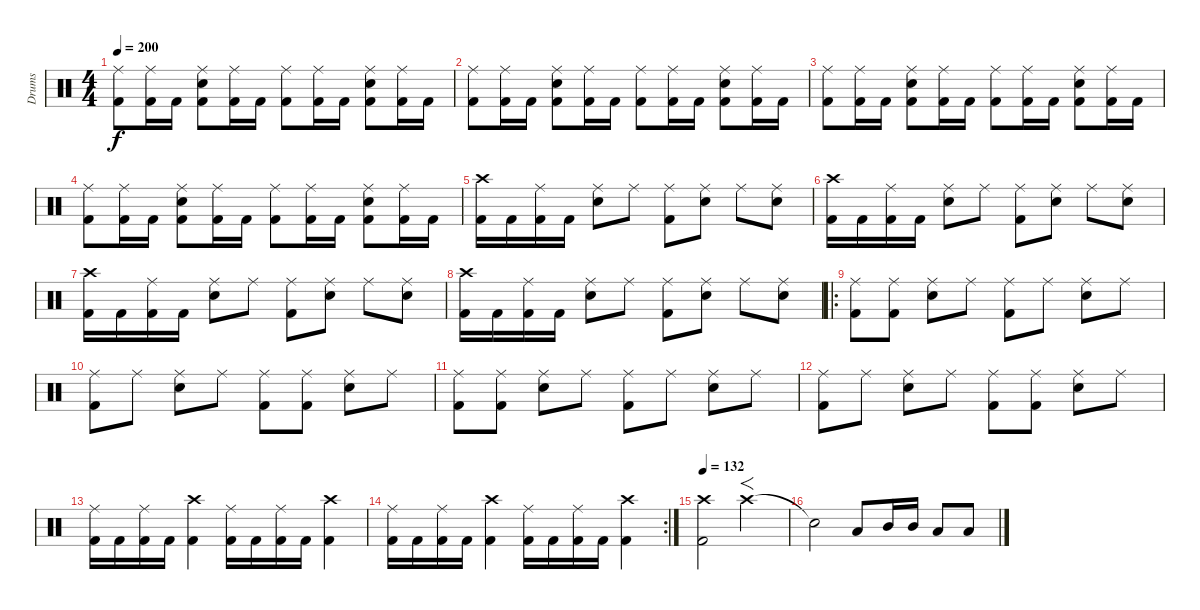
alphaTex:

\track ("Drums" "Drums") {instrument percussion}
\staff {score}
\articulation defaults
\ts (4 4)
\tempo 200
\clef neutral
\ks c
("Kick (hit) 2" "Ride (middle)").8{dy f} ("Kick (hit) 2" "Ride (middle)").16 "Kick (hit) 2".16 ("Kick (hit) 2" "Snare (hit) 2" "Ride (middle)").8 ("Kick (hit) 2" "Ride (middle)").16 "Kick (hit) 2".16 ("Kick (hit) 2" "Ride (middle)").8 ("Kick (hit) 2" "Ride (middle)").16 "Kick (hit) 2".16 ("Kick (hit) 2" "Snare (hit) 2" "Ride (middle)").8 ("Kick (hit) 2" "Ride (middle)").16 "Kick (hit) 2".16 |
("Kick (hit) 2" "Ride (middle)").8 ("Kick (hit) 2" "Ride (middle)").16 "Kick (hit) 2".16 ("Kick (hit) 2" "Snare (hit) 2" "Ride (middle)").8 ("Kick (hit) 2" "Ride (middle)").16 "Kick (hit) 2".16 ("Kick (hit) 2" "Ride (middle)").8 ("Kick (hit) 2" "Ride (middle)").16 "Kick (hit) 2".16 ("Kick (hit) 2" "Snare (hit) 2" "Ride (middle)").8 ("Kick (hit) 2" "Ride (middle)").16 "Kick (hit) 2".16 |
("Kick (hit) 2" "Ride (middle)").8 ("Kick (hit) 2" "Ride (middle)").16 "Kick (hit) 2".16 ("Kick (hit) 2" "Snare (hit) 2" "Ride (middle)").8 ("Kick (hit) 2" "Ride (middle)").16 "Kick (hit) 2".16 ("Kick (hit) 2" "Ride (middle)").8 ("Kick (hit) 2" "Ride (middle)").16 "Kick (hit) 2".16 ("Kick (hit) 2" "Snare (hit) 2" "Ride (middle)").8 ("Kick (hit) 2" "Ride (middle)").16 "Kick (hit) 2".16 |
("Kick (hit) 2" "Ride (middle)").8 ("Kick (hit) 2" "Ride (middle)").16 "Kick (hit) 2".16 ("Kick (hit) 2" "Snare (hit) 2" "Ride (middle)").8 ("Kick (hit) 2" "Ride (middle)").16 "Kick (hit) 2".16 ("Kick (hit) 2" "Ride (middle)").8 ("Kick (hit) 2" "Ride (middle)").16 "Kick (hit) 2".16 ("Kick (hit) 2" "Snare (hit) 2" "Ride (middle)").8 ("Kick (hit) 2" "Ride (middle)").16 "Kick (hit) 2".16 |
("Kick (hit) 2" "Crash high (hit)").16 "Kick (hit) 2".16 ("Kick (hit) 2" "Ride (middle)").16 "Kick (hit) 2".16 ("Snare (hit) 2" "Ride (middle)").8 "Ride (middle)".8 ("Kick (hit) 2" "Ride (middle)").8 ("Snare (hit) 2" "Ride (middle)").8 "Ride (middle)".8 ("Snare (hit) 2" "Ride (middle)").8 |
("Kick (hit) 2" "Crash high (hit)").16 "Kick (hit) 2".16 ("Kick (hit) 2" "Ride (middle)").16 "Kick (hit) 2".16 ("Snare (hit) 2" "Ride (middle)").8 "Ride (middle)".8 ("Kick (hit) 2" "Ride (middle)").8 ("Snare (hit) 2" "Ride (middle)").8 "Ride (middle)".8 ("Snare (hit) 2" "Ride (middle)").8 |
("Kick (hit) 2" "Crash high (hit)").16 "Kick (hit) 2".16 ("Kick (hit) 2" "Ride (middle)").16 "Kick (hit) 2".16 ("Snare (hit) 2" "Ride (middle)").8 "Ride (middle)".8 ("Kick (hit) 2" "Ride (middle)").8 ("Snare (hit) 2" "Ride (middle)").8 "Ride (middle)".8 ("Snare (hit) 2" "Ride (middle)").8 |
("Kick (hit) 2" "Crash high (hit)").16 "Kick (hit) 2".16 ("Kick (hit) 2" "Ride (middle)").16 "Kick (hit) 2".16 ("Snare (hit) 2" "Ride (middle)").8 "Ride (middle)".8 ("Kick (hit) 2" "Ride (middle)").8 ("Snare (hit) 2" "Ride (middle)").8 "Ride (middle)".8 ("Snare (hit) 2" "Ride (middle)").8 |
\ro
("Kick (hit) 2" "Ride (middle)").8 ("Kick (hit) 2" "Ride (middle)").8 ("Snare (hit) 2" "Ride (middle)").8 "Ride (middle)".8 ("Kick (hit) 2" "Ride (middle)").8 "Ride (middle)".8 ("Snare (hit) 2" "Ride (middle)").8 "Ride (middle)".8 |
("Kick (hit) 2" "Ride (middle)").8 "Ride (middle)".8 ("Snare (hit) 2" "Ride (middle)").8 "Ride (middle)".8 ("Kick (hit) 2" "Ride (middle)").8 ("Kick (hit) 2" "Ride (middle)").8 ("Snare (hit) 2" "Ride (middle)").8 "Ride (middle)".8 |
("Kick (hit) 2" "Ride (middle)").8 ("Kick (hit) 2" "Ride (middle)").8 ("Snare (hit) 2" "Ride (middle)").8 "Ride (middle)".8 ("Kick (hit) 2" "Ride (middle)").8 "Ride (middle)".8 ("Snare (hit) 2" "Ride (middle)").8 "Ride (middle)".8 |
("Kick (hit) 2" "Ride (middle)").8 "Ride (middle)".8 ("Snare (hit) 2" "Ride (middle)").8 "Ride (middle)".8 ("Kick (hit) 2" "Ride (middle)").8 ("Kick (hit) 2" "Ride (middle)").8 ("Snare (hit) 2" "Ride (middle)").8 "Ride (middle)".8 |
("Kick (hit) 2" "Ride (middle)").16 "Kick (hit) 2".16 ("Kick (hit) 2" "Ride (middle)").16 "Kick (hit) 2".16 ("Kick (hit) 2" "Crash high (hit)").4 ("Kick (hit) 2" "Ride (middle)").16 "Kick (hit) 2".16 ("Kick (hit) 2" "Ride (middle)").16 "Kick (hit) 2".16 ("Kick (hit) 2" "Crash high (hit)").4 |
\rc 2
("Kick (hit) 2" "Ride (middle)").16 "Kick (hit) 2".16 ("Kick (hit) 2" "Ride (middle)").16 "Kick (hit) 2".16 ("Kick (hit) 2" "Crash high (hit)").4 ("Kick (hit) 2" "Ride (middle)").16 "Kick (hit) 2".16 ("Kick (hit) 2" "Ride (middle)").16 "Kick (hit) 2".16 ("Kick (hit) 2" "Crash high (hit)").4 |
\tempo 132
("Kick (hit) 2" "Crash high (hit)").2 "Crash high (hit)".2{f} |
"Snare (hit)"{t}.2 "Low Tom (hit)".8 "Mid Tom (hit)".16 "Mid Tom (hit)".16 "Low Tom (hit)".8 "Low Tom (hit)".8
